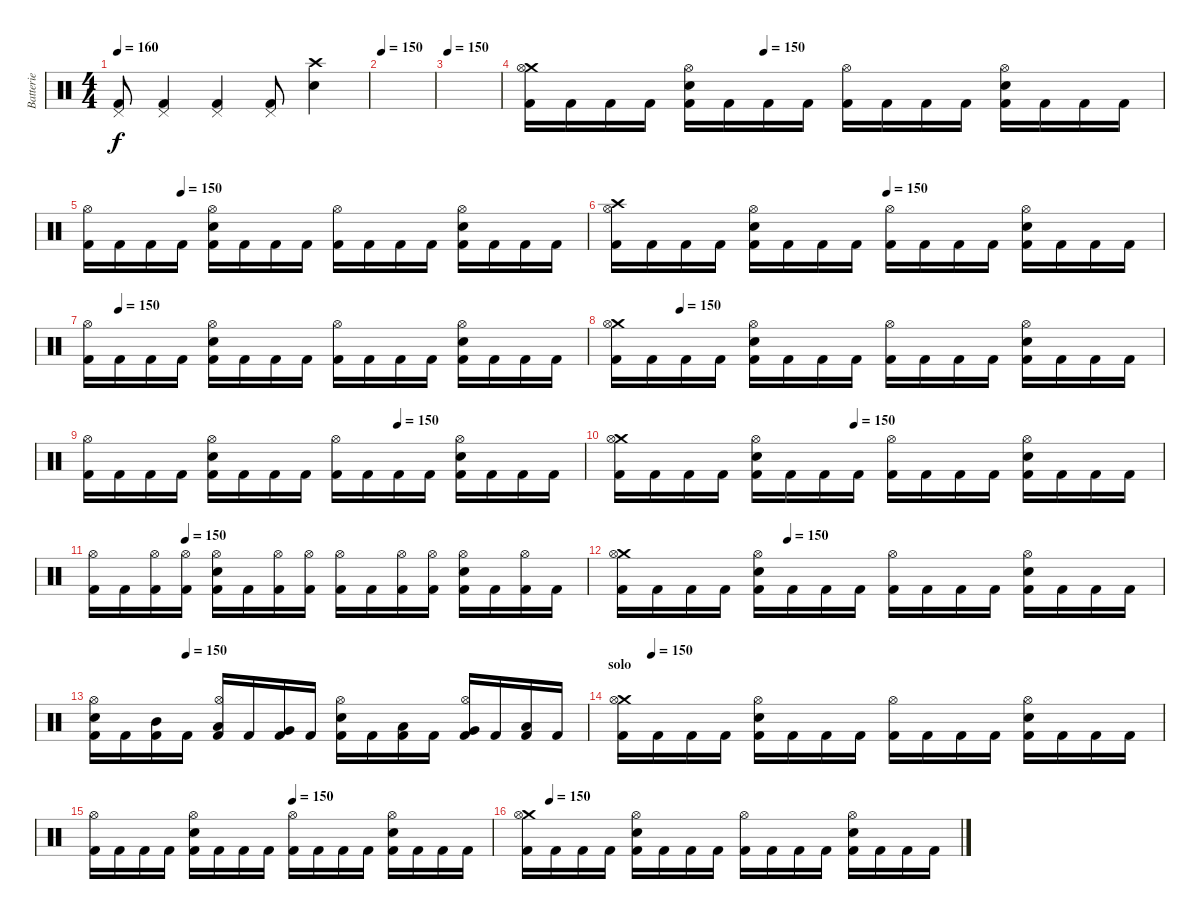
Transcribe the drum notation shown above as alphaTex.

\track ("Batterie" "Batterie") {instrument percussion}
\staff {score}
\articulation defaults
\ts (4 4)
\tempo 160
\clef neutral
\ks c
("Kick (hit) 2" "Pedal Hi-Hat (hit)").8{dy f} ("Kick (hit) 2" "Pedal Hi-Hat (hit)").4 ("Pedal Hi-Hat (hit)" "Kick (hit) 2").4 ("Pedal Hi-Hat (hit)" "Kick (hit) 2").8 ("Crash high (hit)" "Electric Snare (hit)").4 |
\tempo 150
|
\tempo 150
|
\tempo (150 0.375)
("Crash medium (hit)" "Hi-Hat (open)" "Kick (hit) 2").16 "Kick (hit) 2".16 "Kick (hit) 2".16 "Kick (hit) 2".16 ("Electric Snare (hit)" "Hi-Hat (open)" "Kick (hit) 2").16 "Kick (hit) 2".16 "Kick (hit) 2".16 "Kick (hit) 2".16 ("Hi-Hat (open)" "Kick (hit) 2").16 "Kick (hit) 2".16 "Kick (hit) 2".16 "Kick (hit) 2".16 ("Electric Snare (hit)" "Hi-Hat (open)" "Kick (hit) 2").16 "Kick (hit) 2".16 "Kick (hit) 2".16 "Kick (hit) 2".16 |
\tempo (150 0.1875)
("Hi-Hat (open)" "Kick (hit) 2").16 "Kick (hit) 2".16 "Kick (hit) 2".16 "Kick (hit) 2".16 ("Electric Snare (hit)" "Hi-Hat (open)" "Kick (hit) 2").16 "Kick (hit) 2".16 "Kick (hit) 2".16 "Kick (hit) 2".16 ("Hi-Hat (open)" "Kick (hit) 2").16 "Kick (hit) 2".16 "Kick (hit) 2".16 "Kick (hit) 2".16 ("Electric Snare (hit)" "Hi-Hat (open)" "Kick (hit) 2").16 "Kick (hit) 2".16 "Kick (hit) 2".16 "Kick (hit) 2".16 |
\tempo (150 0.5)
("Crash high (hit)" "Hi-Hat (open)" "Kick (hit) 2").16 "Kick (hit) 2".16 "Kick (hit) 2".16 "Kick (hit) 2".16 ("Electric Snare (hit)" "Hi-Hat (open)" "Kick (hit) 2").16 "Kick (hit) 2".16 "Kick (hit) 2".16 "Kick (hit) 2".16 ("Hi-Hat (open)" "Kick (hit) 2").16 "Kick (hit) 2".16 "Kick (hit) 2".16 "Kick (hit) 2".16 ("Electric Snare (hit)" "Hi-Hat (open)" "Kick (hit) 2").16 "Kick (hit) 2".16 "Kick (hit) 2".16 "Kick (hit) 2".16 |
\tempo (150 0.0625)
("Hi-Hat (open)" "Kick (hit) 2").16 "Kick (hit) 2".16 "Kick (hit) 2".16 "Kick (hit) 2".16 ("Electric Snare (hit)" "Hi-Hat (open)" "Kick (hit) 2").16 "Kick (hit) 2".16 "Kick (hit) 2".16 "Kick (hit) 2".16 ("Hi-Hat (open)" "Kick (hit) 2").16 "Kick (hit) 2".16 "Kick (hit) 2".16 "Kick (hit) 2".16 ("Electric Snare (hit)" "Hi-Hat (open)" "Kick (hit) 2").16 "Kick (hit) 2".16 "Kick (hit) 2".16 "Kick (hit) 2".16 |
\tempo (150 0.125)
("Crash medium (hit)" "Hi-Hat (open)" "Kick (hit) 2").16 "Kick (hit) 2".16 "Kick (hit) 2".16 "Kick (hit) 2".16 ("Electric Snare (hit)" "Hi-Hat (open)" "Kick (hit) 2").16 "Kick (hit) 2".16 "Kick (hit) 2".16 "Kick (hit) 2".16 ("Hi-Hat (open)" "Kick (hit) 2").16 "Kick (hit) 2".16 "Kick (hit) 2".16 "Kick (hit) 2".16 ("Electric Snare (hit)" "Hi-Hat (open)" "Kick (hit) 2").16 "Kick (hit) 2".16 "Kick (hit) 2".16 "Kick (hit) 2".16 |
\tempo (150 0.625)
("Hi-Hat (open)" "Kick (hit) 2").16 "Kick (hit) 2".16 "Kick (hit) 2".16 "Kick (hit) 2".16 ("Electric Snare (hit)" "Hi-Hat (open)" "Kick (hit) 2").16 "Kick (hit) 2".16 "Kick (hit) 2".16 "Kick (hit) 2".16 ("Hi-Hat (open)" "Kick (hit) 2").16 "Kick (hit) 2".16 "Kick (hit) 2".16 "Kick (hit) 2".16 ("Electric Snare (hit)" "Hi-Hat (open)" "Kick (hit) 2").16 "Kick (hit) 2".16 "Kick (hit) 2".16 "Kick (hit) 2".16 |
\tempo (150 0.4375)
("Crash medium (hit)" "Hi-Hat (open)" "Kick (hit) 2").16 "Kick (hit) 2".16 "Kick (hit) 2".16 "Kick (hit) 2".16 ("Electric Snare (hit)" "Hi-Hat (open)" "Kick (hit) 2").16 "Kick (hit) 2".16 "Kick (hit) 2".16 "Kick (hit) 2".16 ("Hi-Hat (open)" "Kick (hit) 2").16 "Kick (hit) 2".16 "Kick (hit) 2".16 "Kick (hit) 2".16 ("Electric Snare (hit)" "Hi-Hat (open)" "Kick (hit) 2").16 "Kick (hit) 2".16 "Kick (hit) 2".16 "Kick (hit) 2".16 |
\tempo (150 0.1875)
("Hi-Hat (open)" "Kick (hit) 2").16 "Kick (hit) 2".16 ("Hi-Hat (open)" "Kick (hit) 2").16 ("Hi-Hat (open)" "Kick (hit) 2").16 ("Electric Snare (hit)" "Hi-Hat (open)" "Kick (hit) 2").16 "Kick (hit) 2".16 ("Hi-Hat (open)" "Kick (hit) 2").16 ("Hi-Hat (open)" "Kick (hit) 2").16 ("Hi-Hat (open)" "Kick (hit) 2").16 "Kick (hit) 2".16 ("Hi-Hat (open)" "Kick (hit) 2").16 ("Hi-Hat (open)" "Kick (hit) 2").16 ("Electric Snare (hit)" "Hi-Hat (open)" "Kick (hit) 2").16 "Kick (hit) 2".16 ("Hi-Hat (open)" "Kick (hit) 2").16 "Kick (hit) 2".16 |
\tempo (150 0.3125)
("Crash medium (hit)" "Hi-Hat (open)" "Kick (hit) 2").16 "Kick (hit) 2".16 "Kick (hit) 2".16 "Kick (hit) 2".16 ("Electric Snare (hit)" "Hi-Hat (open)" "Kick (hit) 2").16 "Kick (hit) 2".16 "Kick (hit) 2".16 "Kick (hit) 2".16 ("Hi-Hat (open)" "Kick (hit) 2").16 "Kick (hit) 2".16 "Kick (hit) 2".16 "Kick (hit) 2".16 ("Electric Snare (hit)" "Hi-Hat (open)" "Kick (hit) 2").16 "Kick (hit) 2".16 "Kick (hit) 2".16 "Kick (hit) 2".16 |
\tempo (150 0.1875)
("Electric Snare (hit)" "Hi-Hat (open)" "Kick (hit) 2").16 "Kick (hit) 2".16 ("Mid Tom (hit)" "Kick (hit) 2").16 "Kick (hit) 2".16 ("Low Tom (hit)" "Hi-Hat (open)" "Kick (hit) 2").16 "Kick (hit) 2".16 ("Very Low Tom (hit)" "Kick (hit) 2").16 "Kick (hit) 2".16 ("Electric Snare (hit)" "Hi-Hat (open)" "Kick (hit) 2").16 "Kick (hit) 2".16 ("Low Tom (hit)" "Kick (hit) 2").16 "Kick (hit) 2".16 ("Very Low Tom (hit)" "Hi-Hat (open)" "Kick (hit) 2").16 "Kick (hit) 2".16 ("Low Floor Tom (hit)" "Kick (hit) 2").16 "Kick (hit) 2".16 |
\section ("" "solo")
\tempo (150 0.0625)
("Crash medium (hit)" "Hi-Hat (open)" "Kick (hit) 2").16 "Kick (hit) 2".16 "Kick (hit) 2".16 "Kick (hit) 2".16 ("Electric Snare (hit)" "Hi-Hat (open)" "Kick (hit) 2").16 "Kick (hit) 2".16 "Kick (hit) 2".16 "Kick (hit) 2".16 ("Hi-Hat (open)" "Kick (hit) 2").16 "Kick (hit) 2".16 "Kick (hit) 2".16 "Kick (hit) 2".16 ("Electric Snare (hit)" "Hi-Hat (open)" "Kick (hit) 2").16 "Kick (hit) 2".16 "Kick (hit) 2".16 "Kick (hit) 2".16 |
\tempo (150 0.5)
("Hi-Hat (open)" "Kick (hit) 2").16 "Kick (hit) 2".16 "Kick (hit) 2".16 "Kick (hit) 2".16 ("Electric Snare (hit)" "Hi-Hat (open)" "Kick (hit) 2").16 "Kick (hit) 2".16 "Kick (hit) 2".16 "Kick (hit) 2".16 ("Hi-Hat (open)" "Kick (hit) 2").16 "Kick (hit) 2".16 "Kick (hit) 2".16 "Kick (hit) 2".16 ("Electric Snare (hit)" "Hi-Hat (open)" "Kick (hit) 2").16 "Kick (hit) 2".16 "Kick (hit) 2".16 "Kick (hit) 2".16 |
\tempo (150 0.0625)
("Crash medium (hit)" "Hi-Hat (open)" "Kick (hit) 2").16 "Kick (hit) 2".16 "Kick (hit) 2".16 "Kick (hit) 2".16 ("Electric Snare (hit)" "Hi-Hat (open)" "Kick (hit) 2").16 "Kick (hit) 2".16 "Kick (hit) 2".16 "Kick (hit) 2".16 ("Hi-Hat (open)" "Kick (hit) 2").16 "Kick (hit) 2".16 "Kick (hit) 2".16 "Kick (hit) 2".16 ("Electric Snare (hit)" "Hi-Hat (open)" "Kick (hit) 2").16 "Kick (hit) 2".16 "Kick (hit) 2".16 "Kick (hit) 2".16
